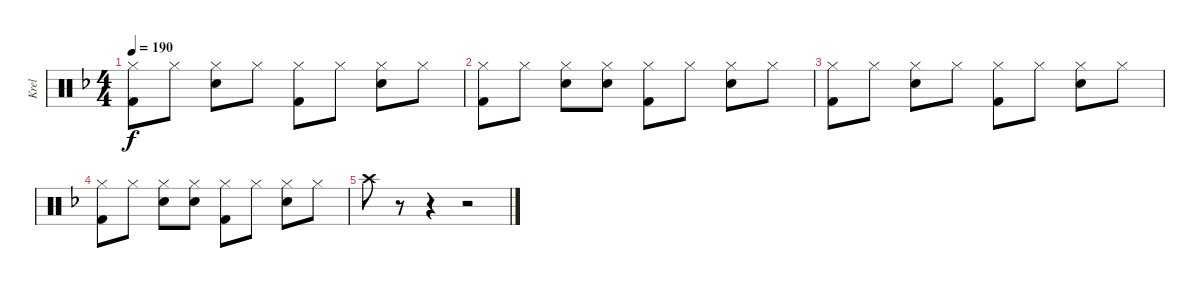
\track ("Krel" "Krel") {instrument percussion}
\staff {score}
\articulation defaults
\ts (4 4)
\tempo 190
\clef neutral
\ks f
("Hi-Hat (closed)" "Kick (hit) 2").8{dy f} "Hi-Hat (closed)".8 ("Hi-Hat (closed)" "Snare (hit) 2").8 "Hi-Hat (closed)".8 ("Hi-Hat (closed)" "Kick (hit) 2").8 "Hi-Hat (closed)".8 ("Hi-Hat (closed)" "Snare (hit) 2").8 "Hi-Hat (closed)".8 |
("Hi-Hat (closed)" "Kick (hit) 2").8 "Hi-Hat (closed)".8 ("Hi-Hat (closed)" "Snare (hit) 2").8 ("Hi-Hat (closed)" "Snare (hit) 2").8 ("Hi-Hat (closed)" "Kick (hit) 2").8 "Hi-Hat (closed)".8 ("Hi-Hat (closed)" "Snare (hit) 2").8 "Hi-Hat (closed)".8 |
("Hi-Hat (closed)" "Kick (hit) 2").8 "Hi-Hat (closed)".8 ("Hi-Hat (closed)" "Snare (hit) 2").8 "Hi-Hat (closed)".8 ("Hi-Hat (closed)" "Kick (hit) 2").8 "Hi-Hat (closed)".8 ("Hi-Hat (closed)" "Snare (hit) 2").8 "Hi-Hat (closed)".8 |
("Hi-Hat (closed)" "Kick (hit) 2").8 "Hi-Hat (closed)".8 ("Hi-Hat (closed)" "Snare (hit) 2").8 ("Hi-Hat (closed)" "Snare (hit) 2").8 ("Hi-Hat (closed)" "Kick (hit) 2").8 "Hi-Hat (closed)".8 ("Hi-Hat (closed)" "Snare (hit) 2").8 "Hi-Hat (closed)".8 |
"Crash high (hit)".8 r.8 r.4 r.2
